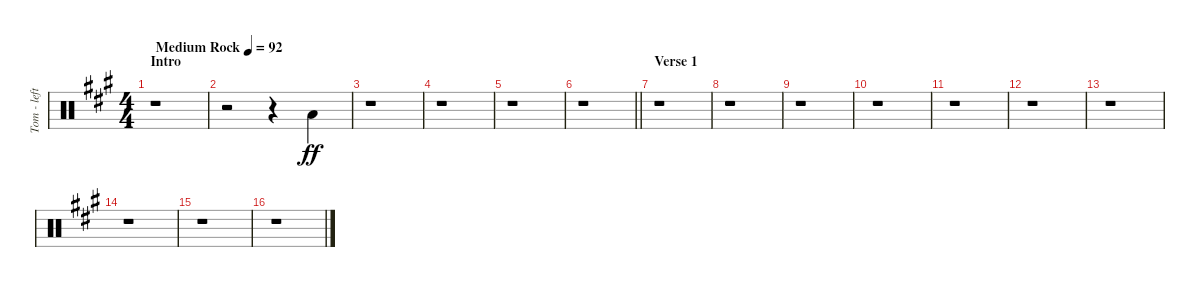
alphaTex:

\track ("Tom - left" "Tom - left") {instrument percussion}
\staff {score}
\articulation defaults
\ts (4 4)
\section ("" "Intro")
\tempo (92 "Medium Rock")
\clef neutral
\ks f#minor
r.1{dy ff balance 4} |
r.2 r.4 "Low Tom (hit)".4{beam Down} |
r.1 |
r.1 |
r.1 |
\barLineRight lightlight
r.1 |
\section ("" "Verse 1")
r.1 |
r.1 |
r.1 |
r.1 |
r.1 |
r.1 |
r.1 |
r.1 |
r.1 |
r.1
